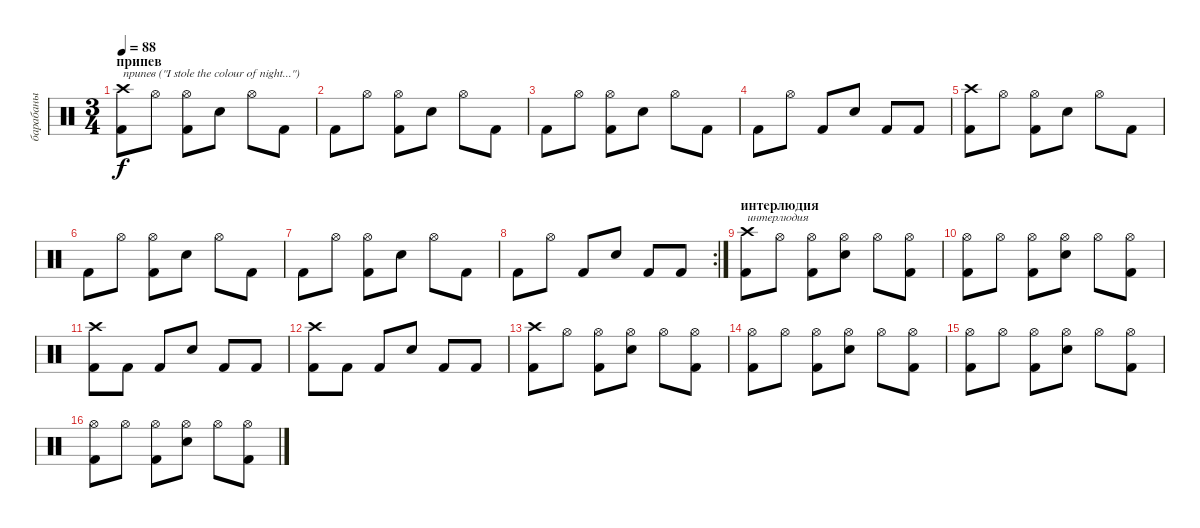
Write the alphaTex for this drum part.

\track ("барабаны" "барабаны") {instrument percussion}
\staff {score}
\articulation defaults
\ts (3 4)
\section ("" "припев")
\tempo 88
\clef neutral
\ks c
("Crash high (hit)" "Kick (hit) 2").8{txt "припев (\"I stole the colour of night...\")" dy f} "Hi-Hat (open)".8 ("Hi-Hat (open)" "Kick (hit) 2").8 "Snare (hit) 2".8 "Hi-Hat (open)".8 "Kick (hit) 2".8 |
"Kick (hit) 2".8 "Hi-Hat (open)".8 ("Hi-Hat (open)" "Kick (hit) 2").8 "Snare (hit) 2".8 "Hi-Hat (open)".8 "Kick (hit) 2".8 |
"Kick (hit) 2".8 "Hi-Hat (open)".8 ("Hi-Hat (open)" "Kick (hit) 2").8 "Snare (hit) 2".8 "Hi-Hat (open)".8 "Kick (hit) 2".8 |
"Kick (hit) 2".8 "Hi-Hat (open)".8 "Kick (hit) 2".8 "Snare (hit) 2".8 "Kick (hit) 2".8 "Kick (hit) 2".8 |
("Crash high (hit)" "Kick (hit) 2").8 "Hi-Hat (open)".8 ("Hi-Hat (open)" "Kick (hit) 2").8 "Snare (hit) 2".8 "Hi-Hat (open)".8 "Kick (hit) 2".8 |
"Kick (hit) 2".8 "Hi-Hat (open)".8 ("Hi-Hat (open)" "Kick (hit) 2").8 "Snare (hit) 2".8 "Hi-Hat (open)".8 "Kick (hit) 2".8 |
"Kick (hit) 2".8 "Hi-Hat (open)".8 ("Hi-Hat (open)" "Kick (hit) 2").8 "Snare (hit) 2".8 "Hi-Hat (open)".8 "Kick (hit) 2".8 |
\rc 2 "Kick (hit) 2".8 "Hi-Hat (open)".8 "Kick (hit) 2".8 "Snare (hit) 2".8 "Kick (hit) 2".8 "Kick (hit) 2".8
|
\section ("" "интерлюдия")
("Crash high (hit)" "Kick (hit) 2").8{txt "интерлюдия"} "Hi-Hat (open)".8 ("Hi-Hat (open)" "Kick (hit) 2").8 ("Hi-Hat (open)" "Snare (hit) 2").8 "Hi-Hat (open)".8 ("Hi-Hat (open)" "Kick (hit) 2").8 |
("Hi-Hat (open)" "Kick (hit) 2").8 "Hi-Hat (open)".8 ("Hi-Hat (open)" "Kick (hit) 2").8 ("Hi-Hat (open)" "Snare (hit) 2").8 "Hi-Hat (open)".8 ("Hi-Hat (open)" "Kick (hit) 2").8 |
("Crash high (hit)" "Kick (hit) 2").8 "Kick (hit) 2".8 "Kick (hit) 2".8 "Snare (hit) 2".8 "Kick (hit) 2".8 "Kick (hit) 2".8 |
("Crash high (hit)" "Kick (hit) 2").8 "Kick (hit) 2".8 "Kick (hit) 2".8 "Snare (hit) 2".8 "Kick (hit) 2".8 "Kick (hit) 2".8 |
("Crash high (hit)" "Kick (hit) 2").8 "Hi-Hat (open)".8 ("Hi-Hat (open)" "Kick (hit) 2").8 ("Hi-Hat (open)" "Snare (hit) 2").8 "Hi-Hat (open)".8 ("Hi-Hat (open)" "Kick (hit) 2").8 |
("Hi-Hat (open)" "Kick (hit) 2").8 "Hi-Hat (open)".8 ("Hi-Hat (open)" "Kick (hit) 2").8 ("Hi-Hat (open)" "Snare (hit) 2").8 "Hi-Hat (open)".8 ("Hi-Hat (open)" "Kick (hit) 2").8 |
("Hi-Hat (open)" "Kick (hit) 2").8 "Hi-Hat (open)".8 ("Hi-Hat (open)" "Kick (hit) 2").8 ("Hi-Hat (open)" "Snare (hit) 2").8 "Hi-Hat (open)".8 ("Hi-Hat (open)" "Kick (hit) 2").8 |
("Hi-Hat (open)" "Kick (hit) 2").8 "Hi-Hat (open)".8 ("Hi-Hat (open)" "Kick (hit) 2").8 ("Hi-Hat (open)" "Snare (hit) 2").8 "Hi-Hat (open)".8 ("Hi-Hat (open)" "Kick (hit) 2").8
